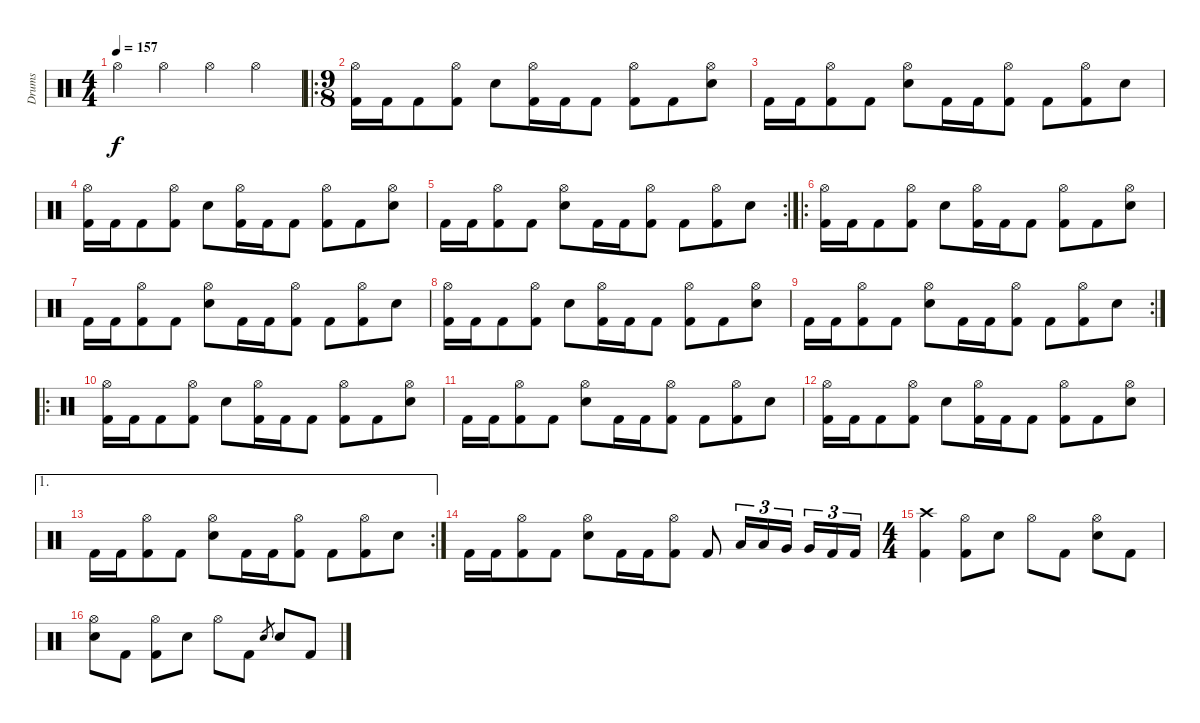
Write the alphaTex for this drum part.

\track ("Drums" "Drums") {instrument percussion}
\staff {score}
\articulation defaults
\ts (4 4)
\tempo 157
\clef neutral
\ks c "Hi-Hat (open)".4{dy f} "Hi-Hat (open)".4 "Hi-Hat (open)".4 "Hi-Hat (open)".4
|
\ro
\ts (9 8)
("Hi-Hat (open)" "Kick (hit) 2").16 "Kick (hit) 2".16 "Kick (hit) 2".8 ("Hi-Hat (open)" "Kick (hit) 2").8 "Electric Snare (hit)".8 ("Hi-Hat (open)" "Kick (hit) 2").16 "Kick (hit) 2".16 "Kick (hit) 2".8 ("Hi-Hat (open)" "Kick (hit) 2").8 "Kick (hit) 2".8 ("Hi-Hat (open)" "Electric Snare (hit)").8 |
"Kick (hit) 2".16 "Kick (hit) 2".16 ("Hi-Hat (open)" "Kick (hit) 2").8 "Kick (hit) 2".8 ("Hi-Hat (open)" "Electric Snare (hit)").8 "Kick (hit) 2".16 "Kick (hit) 2".16 ("Hi-Hat (open)" "Kick (hit) 2").8 "Kick (hit) 2".8 ("Hi-Hat (open)" "Kick (hit) 2").8 "Electric Snare (hit)".8 |
("Hi-Hat (open)" "Kick (hit) 2").16 "Kick (hit) 2".16 "Kick (hit) 2".8 ("Hi-Hat (open)" "Kick (hit) 2").8 "Electric Snare (hit)".8 ("Hi-Hat (open)" "Kick (hit) 2").16 "Kick (hit) 2".16 "Kick (hit) 2".8 ("Hi-Hat (open)" "Kick (hit) 2").8 "Kick (hit) 2".8 ("Hi-Hat (open)" "Electric Snare (hit)").8 |
\rc 2 "Kick (hit) 2".16 "Kick (hit) 2".16
("Hi-Hat (open)" "Kick (hit) 2").8 "Kick (hit) 2".8 ("Hi-Hat (open)" "Electric Snare (hit)").8 "Kick (hit) 2".16 "Kick (hit) 2".16 ("Hi-Hat (open)" "Kick (hit) 2").8 "Kick (hit) 2".8 ("Hi-Hat (open)" "Kick (hit) 2").8 "Electric Snare (hit)".8 |
\ro
("Hi-Hat (open)" "Kick (hit) 2").16 "Kick (hit) 2".16 "Kick (hit) 2".8 ("Hi-Hat (open)" "Kick (hit) 2").8 "Electric Snare (hit)".8 ("Hi-Hat (open)" "Kick (hit) 2").16 "Kick (hit) 2".16 "Kick (hit) 2".8 ("Hi-Hat (open)" "Kick (hit) 2").8 "Kick (hit) 2".8 ("Hi-Hat (open)" "Electric Snare (hit)").8 |
"Kick (hit) 2".16 "Kick (hit) 2".16 ("Hi-Hat (open)" "Kick (hit) 2").8 "Kick (hit) 2".8 ("Hi-Hat (open)" "Electric Snare (hit)").8 "Kick (hit) 2".16 "Kick (hit) 2".16 ("Hi-Hat (open)" "Kick (hit) 2").8 "Kick (hit) 2".8 ("Hi-Hat (open)" "Kick (hit) 2").8 "Electric Snare (hit)".8 |
("Hi-Hat (open)" "Kick (hit) 2").16 "Kick (hit) 2".16 "Kick (hit) 2".8 ("Hi-Hat (open)" "Kick (hit) 2").8 "Electric Snare (hit)".8 ("Hi-Hat (open)" "Kick (hit) 2").16 "Kick (hit) 2".16 "Kick (hit) 2".8 ("Hi-Hat (open)" "Kick (hit) 2").8 "Kick (hit) 2".8 ("Hi-Hat (open)" "Electric Snare (hit)").8 |
\rc 2 "Kick (hit) 2".16 "Kick (hit) 2".16
("Hi-Hat (open)" "Kick (hit) 2").8 "Kick (hit) 2".8 ("Hi-Hat (open)" "Electric Snare (hit)").8 "Kick (hit) 2".16 "Kick (hit) 2".16 ("Hi-Hat (open)" "Kick (hit) 2").8 "Kick (hit) 2".8 ("Hi-Hat (open)" "Kick (hit) 2").8 "Electric Snare (hit)".8 |
\ro
("Hi-Hat (open)" "Kick (hit) 2").16 "Kick (hit) 2".16 "Kick (hit) 2".8 ("Hi-Hat (open)" "Kick (hit) 2").8 "Electric Snare (hit)".8 ("Hi-Hat (open)" "Kick (hit) 2").16 "Kick (hit) 2".16 "Kick (hit) 2".8 ("Hi-Hat (open)" "Kick (hit) 2").8 "Kick (hit) 2".8 ("Hi-Hat (open)" "Electric Snare (hit)").8 |
"Kick (hit) 2".16 "Kick (hit) 2".16 ("Hi-Hat (open)" "Kick (hit) 2").8 "Kick (hit) 2".8 ("Hi-Hat (open)" "Electric Snare (hit)").8 "Kick (hit) 2".16 "Kick (hit) 2".16 ("Hi-Hat (open)" "Kick (hit) 2").8 "Kick (hit) 2".8 ("Hi-Hat (open)" "Kick (hit) 2").8 "Electric Snare (hit)".8 |
("Hi-Hat (open)" "Kick (hit) 2").16 "Kick (hit) 2".16 "Kick (hit) 2".8 ("Hi-Hat (open)" "Kick (hit) 2").8 "Electric Snare (hit)".8 ("Hi-Hat (open)" "Kick (hit) 2").16 "Kick (hit) 2".16 "Kick (hit) 2".8 ("Hi-Hat (open)" "Kick (hit) 2").8 "Kick (hit) 2".8 ("Hi-Hat (open)" "Electric Snare (hit)").8 |
\ae 1
\rc 2 "Kick (hit) 2".16 "Kick (hit) 2".16
("Hi-Hat (open)" "Kick (hit) 2").8 "Kick (hit) 2".8 ("Hi-Hat (open)" "Electric Snare (hit)").8 "Kick (hit) 2".16 "Kick (hit) 2".16 ("Hi-Hat (open)" "Kick (hit) 2").8 "Kick (hit) 2".8 ("Hi-Hat (open)" "Kick (hit) 2").8 "Electric Snare (hit)".8 |
"Kick (hit) 2".16 "Kick (hit) 2".16 ("Hi-Hat (open)" "Kick (hit) 2").8 "Kick (hit) 2".8 ("Hi-Hat (open)" "Electric Snare (hit)").8 "Kick (hit) 2".16 "Kick (hit) 2".16 ("Hi-Hat (open)" "Kick (hit) 2").8 "Kick (hit) 2".8 "Low Tom (hit)".16{tu (3 2)} "Low Tom (hit)".16{tu (3 2)} "Very Low Tom (hit)".16{tu (3 2)} "Very Low Tom (hit)".16{tu (3 2)} "Kick (hit) 2".16{tu (3 2)} "Kick (hit) 2".16{tu (3 2)} |
\ts (4 4)
("Crash high (hit)" "Kick (hit) 2").4 ("Hi-Hat (open)" "Kick (hit) 2").8 "Electric Snare (hit)".8 "Hi-Hat (open)".8 "Kick (hit) 2".8 ("Hi-Hat (open)" "Electric Snare (hit)").8 "Kick (hit) 2".8 |
("Hi-Hat (open)" "Electric Snare (hit)").8 "Kick (hit) 2".8 ("Hi-Hat (open)" "Kick (hit) 2").8 "Electric Snare (hit)".8 "Hi-Hat (open)".8 "Kick (hit) 2".8 "Electric Snare (hit)".8{gr} "Electric Snare (hit)".8 "Kick (hit) 2".8
